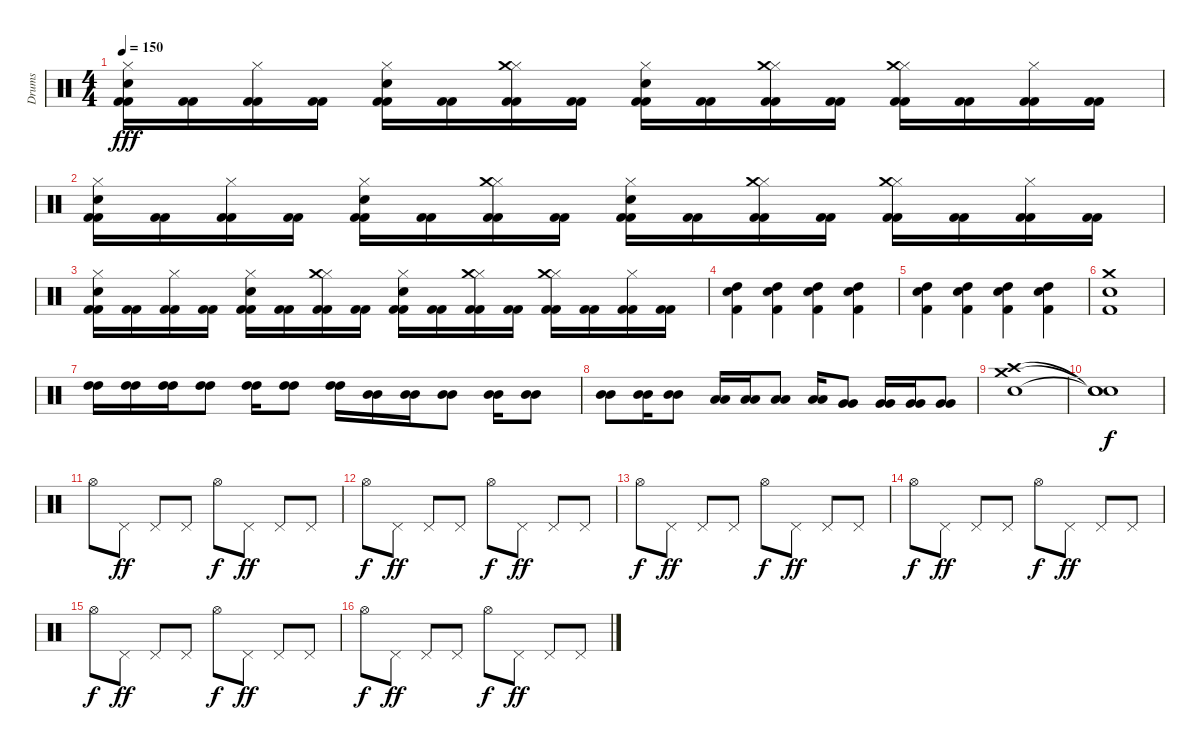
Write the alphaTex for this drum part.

\track ("Drums" "Drums") {instrument percussion}
\staff {score}
\articulation defaults
\ts (4 4)
\tempo 150
\clef neutral
\ks c
("Hi-Hat (closed)" "Electric Snare (hit)" "Kick (hit) 2" "Kick (hit) 2").16{dy fff} ("Kick (hit) 2" "Kick (hit) 2").16 ("Hi-Hat (closed)" "Kick (hit) 2" "Kick (hit) 2").16 ("Kick (hit) 2" "Kick (hit) 2").16 ("Hi-Hat (closed)" "Electric Snare (hit)" "Kick (hit) 2" "Kick (hit) 2").16 ("Kick (hit) 2" "Kick (hit) 2").16 ("Hi-Hat (closed)" "Crash medium (hit)" "Kick (hit) 2" "Kick (hit) 2").16 ("Kick (hit) 2" "Kick (hit) 2").16 ("Hi-Hat (closed)" "Electric Snare (hit)" "Kick (hit) 2" "Kick (hit) 2").16 ("Kick (hit) 2" "Kick (hit) 2").16 ("Hi-Hat (closed)" "Crash medium (hit)" "Kick (hit) 2" "Kick (hit) 2").16 ("Kick (hit) 2" "Kick (hit) 2").16 ("Hi-Hat (closed)" "Crash medium (hit)" "Kick (hit) 2" "Kick (hit) 2").16 ("Kick (hit) 2" "Kick (hit) 2").16 ("Hi-Hat (closed)" "Kick (hit) 2" "Kick (hit) 2").16 ("Kick (hit) 2" "Kick (hit) 2").16 |
("Hi-Hat (closed)" "Electric Snare (hit)" "Kick (hit) 2" "Kick (hit) 2").16 ("Kick (hit) 2" "Kick (hit) 2").16 ("Hi-Hat (closed)" "Kick (hit) 2" "Kick (hit) 2").16 ("Kick (hit) 2" "Kick (hit) 2").16 ("Hi-Hat (closed)" "Electric Snare (hit)" "Kick (hit) 2" "Kick (hit) 2").16 ("Kick (hit) 2" "Kick (hit) 2").16 ("Hi-Hat (closed)" "Crash medium (hit)" "Kick (hit) 2" "Kick (hit) 2").16 ("Kick (hit) 2" "Kick (hit) 2").16 ("Hi-Hat (closed)" "Electric Snare (hit)" "Kick (hit) 2" "Kick (hit) 2").16 ("Kick (hit) 2" "Kick (hit) 2").16 ("Hi-Hat (closed)" "Crash medium (hit)" "Kick (hit) 2" "Kick (hit) 2").16 ("Kick (hit) 2" "Kick (hit) 2").16 ("Hi-Hat (closed)" "Crash medium (hit)" "Kick (hit) 2" "Kick (hit) 2").16 ("Kick (hit) 2" "Kick (hit) 2").16 ("Hi-Hat (closed)" "Kick (hit) 2" "Kick (hit) 2").16 ("Kick (hit) 2" "Kick (hit) 2").16 |
("Hi-Hat (closed)" "Electric Snare (hit)" "Kick (hit) 2" "Kick (hit) 2").16 ("Kick (hit) 2" "Kick (hit) 2").16 ("Hi-Hat (closed)" "Kick (hit) 2" "Kick (hit) 2").16 ("Kick (hit) 2" "Kick (hit) 2").16 ("Hi-Hat (closed)" "Electric Snare (hit)" "Kick (hit) 2" "Kick (hit) 2").16 ("Kick (hit) 2" "Kick (hit) 2").16 ("Hi-Hat (closed)" "Crash medium (hit)" "Kick (hit) 2" "Kick (hit) 2").16 ("Kick (hit) 2" "Kick (hit) 2").16 ("Hi-Hat (closed)" "Electric Snare (hit)" "Kick (hit) 2" "Kick (hit) 2").16 ("Kick (hit) 2" "Kick (hit) 2").16 ("Hi-Hat (closed)" "Crash medium (hit)" "Kick (hit) 2" "Kick (hit) 2").16 ("Kick (hit) 2" "Kick (hit) 2").16 ("Hi-Hat (closed)" "Crash medium (hit)" "Kick (hit) 2" "Kick (hit) 2").16 ("Kick (hit) 2" "Kick (hit) 2").16 ("Hi-Hat (closed)" "Kick (hit) 2" "Kick (hit) 2").16 ("Kick (hit) 2" "Kick (hit) 2").16 |
("High Tom (hit)" "Electric Snare (hit)" "Kick (hit) 2").4 ("High Tom (hit)" "Electric Snare (hit)" "Kick (hit) 2").4 ("High Tom (hit)" "Electric Snare (hit)" "Kick (hit) 2").4 ("High Tom (hit)" "Electric Snare (hit)" "Kick (hit) 2").4 |
("High Tom (hit)" "Electric Snare (hit)" "Kick (hit) 2").4 ("High Tom (hit)" "Electric Snare (hit)" "Kick (hit) 2").4 ("High Tom (hit)" "Electric Snare (hit)" "Kick (hit) 2").4 ("High Tom (hit)" "Electric Snare (hit)" "Kick (hit) 2").4 |
("Crash medium (hit)" "Electric Snare (hit)" "Kick (hit) 2").1 |
("High Tom (hit)" "High Tom (hit)").16 ("High Tom (hit)" "High Tom (hit)").16 ("High Tom (hit)" "High Tom (hit)").16 ("High Tom (hit)" "High Tom (hit)").8 ("High Tom (hit)" "High Tom (hit)").16 ("High Tom (hit)" "High Tom (hit)").8 ("High Tom (hit)" "High Tom (hit)").16 ("Mid Tom (hit)" "Mid Tom (hit)").16 ("Mid Tom (hit)" "Mid Tom (hit)").16 ("Mid Tom (hit)" "Mid Tom (hit)").8 ("Mid Tom (hit)" "Mid Tom (hit)").16 ("Mid Tom (hit)" "Mid Tom (hit)").8 |
("Mid Tom (hit)" "Mid Tom (hit)").8 ("Mid Tom (hit)" "Mid Tom (hit)").16 ("Mid Tom (hit)" "Mid Tom (hit)").8 ("Low Tom (hit)" "Low Tom (hit)").16 ("Low Tom (hit)" "Low Tom (hit)").16 ("Low Tom (hit)" "Low Tom (hit)").8 ("Low Tom (hit)" "Low Tom (hit)").16 ("Very Low Tom (hit)" "Very Low Tom (hit)").8 ("Very Low Tom (hit)" "Very Low Tom (hit)").16 ("Very Low Tom (hit)" "Very Low Tom (hit)").16 ("Very Low Tom (hit)" "Very Low Tom (hit)").8 |
("Crash high (hit)" "Crash medium (hit)" "Electric Snare (hit)").1 |
("Snare (hit)"{t} "Snare (hit)"{t} "Snare (hit)"{t}).1{dy f} |
"Hi-Hat (open)".8 "Pedal Hi-Hat (hit)".8{dy ff} "Pedal Hi-Hat (hit)".8 "Pedal Hi-Hat (hit)".8 "Hi-Hat (open)".8{dy f} "Pedal Hi-Hat (hit)".8{dy ff} "Pedal Hi-Hat (hit)".8 "Pedal Hi-Hat (hit)".8 |
"Hi-Hat (open)".8{dy f} "Pedal Hi-Hat (hit)".8{dy ff} "Pedal Hi-Hat (hit)".8 "Pedal Hi-Hat (hit)".8 "Hi-Hat (open)".8{dy f} "Pedal Hi-Hat (hit)".8{dy ff} "Pedal Hi-Hat (hit)".8 "Pedal Hi-Hat (hit)".8 |
"Hi-Hat (open)".8{dy f} "Pedal Hi-Hat (hit)".8{dy ff} "Pedal Hi-Hat (hit)".8 "Pedal Hi-Hat (hit)".8 "Hi-Hat (open)".8{dy f} "Pedal Hi-Hat (hit)".8{dy ff} "Pedal Hi-Hat (hit)".8 "Pedal Hi-Hat (hit)".8 |
"Hi-Hat (open)".8{dy f} "Pedal Hi-Hat (hit)".8{dy ff} "Pedal Hi-Hat (hit)".8 "Pedal Hi-Hat (hit)".8 "Hi-Hat (open)".8{dy f} "Pedal Hi-Hat (hit)".8{dy ff} "Pedal Hi-Hat (hit)".8 "Pedal Hi-Hat (hit)".8 |
"Hi-Hat (open)".8{dy f} "Pedal Hi-Hat (hit)".8{dy ff} "Pedal Hi-Hat (hit)".8 "Pedal Hi-Hat (hit)".8 "Hi-Hat (open)".8{dy f} "Pedal Hi-Hat (hit)".8{dy ff} "Pedal Hi-Hat (hit)".8 "Pedal Hi-Hat (hit)".8 |
"Hi-Hat (open)".8{dy f} "Pedal Hi-Hat (hit)".8{dy ff} "Pedal Hi-Hat (hit)".8 "Pedal Hi-Hat (hit)".8 "Hi-Hat (open)".8{dy f} "Pedal Hi-Hat (hit)".8{dy ff} "Pedal Hi-Hat (hit)".8 "Pedal Hi-Hat (hit)".8
